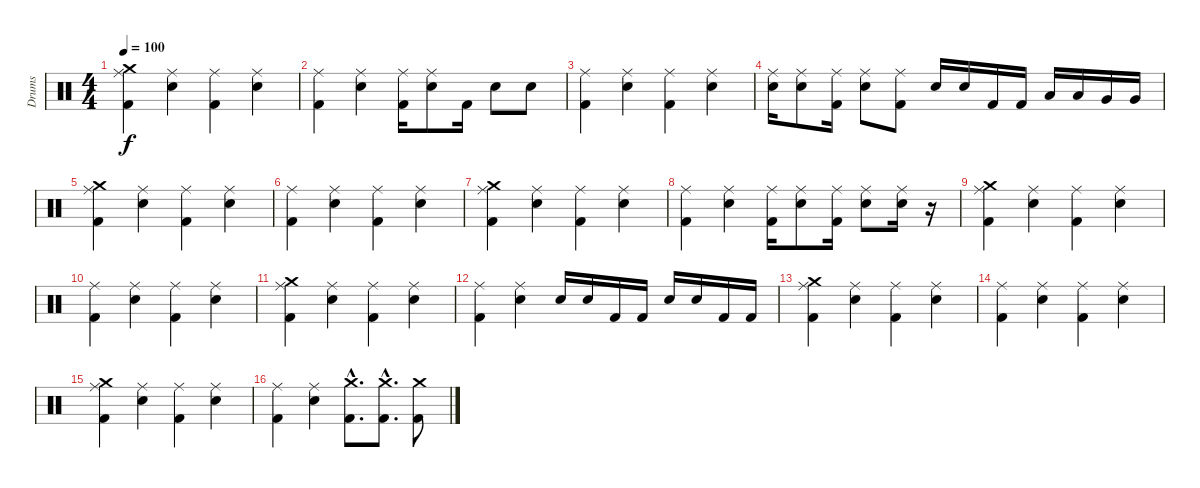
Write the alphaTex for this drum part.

\track ("Drums" "Drums") {instrument percussion}
\staff {score}
\articulation defaults
\ts (4 4)
\tempo 100
\clef neutral
\ks c
("Kick (hit) 2" "Ride (middle)" "Crash medium (hit)").4{dy f} ("Snare (hit) 2" "Ride (middle)").4 ("Kick (hit) 2" "Ride (middle)").4 ("Snare (hit) 2" "Ride (middle)").4 |
("Kick (hit) 2" "Ride (middle)").4 ("Snare (hit) 2" "Ride (middle)").4 ("Kick (hit) 2" "Ride (middle)").16 ("Snare (hit) 2" "Ride (middle)").8 "Kick (hit) 2".16 "Snare (hit) 2".8 "Snare (hit) 2".8 |
("Kick (hit) 2" "Ride (middle)").4 ("Snare (hit) 2" "Ride (middle)").4 ("Kick (hit) 2" "Ride (middle)").4 ("Snare (hit) 2" "Ride (middle)").4 |
("Snare (hit) 2" "Ride (middle)").16 ("Snare (hit) 2" "Ride (middle)").8 ("Kick (hit) 2" "Ride (middle)").16 ("Snare (hit) 2" "Ride (middle)").8 ("Kick (hit) 2" "Ride (middle)").8 "Snare (hit) 2".16 "Snare (hit) 2".16 "Kick (hit) 2".16 "Kick (hit) 2".16 "Low Tom (hit)".16 "Low Tom (hit)".16 "Very Low Tom (hit)".16 "Very Low Tom (hit)".16 |
("Kick (hit) 2" "Ride (middle)" "Crash medium (hit)").4 ("Snare (hit) 2" "Ride (middle)").4 ("Kick (hit) 2" "Ride (middle)").4 ("Snare (hit) 2" "Ride (middle)").4 |
("Kick (hit) 2" "Ride (middle)").4 ("Snare (hit) 2" "Ride (middle)").4 ("Kick (hit) 2" "Ride (middle)").4 ("Snare (hit) 2" "Ride (middle)").4 |
("Kick (hit) 2" "Ride (middle)" "Crash medium (hit)").4 ("Snare (hit) 2" "Ride (middle)").4 ("Kick (hit) 2" "Ride (middle)").4 ("Snare (hit) 2" "Ride (middle)").4 |
("Kick (hit) 2" "Ride (middle)").4 ("Snare (hit) 2" "Ride (middle)").4 ("Kick (hit) 2" "Ride (middle)").16 ("Snare (hit) 2" "Ride (middle)").8 ("Kick (hit) 2" "Ride (middle)").16 ("Snare (hit) 2" "Ride (middle)").8 ("Snare (hit) 2" "Ride (middle)").16 r.16 |
("Kick (hit) 2" "Ride (middle)" "Crash medium (hit)").4 ("Snare (hit) 2" "Ride (middle)").4 ("Kick (hit) 2" "Ride (middle)").4 ("Snare (hit) 2" "Ride (middle)").4 |
("Kick (hit) 2" "Ride (middle)").4 ("Snare (hit) 2" "Ride (middle)").4 ("Kick (hit) 2" "Ride (middle)").4 ("Snare (hit) 2" "Ride (middle)").4 |
("Kick (hit) 2" "Ride (middle)" "Crash medium (hit)").4 ("Snare (hit) 2" "Ride (middle)").4 ("Kick (hit) 2" "Ride (middle)").4 ("Snare (hit) 2" "Ride (middle)").4 |
("Kick (hit) 2" "Ride (middle)").4 ("Snare (hit) 2" "Ride (middle)").4 "Snare (hit) 2".16 "Snare (hit) 2".16 "Kick (hit) 2".16 "Kick (hit) 2".16 "Snare (hit) 2".16 "Snare (hit) 2".16 "Kick (hit) 2".16 "Kick (hit) 2".16 |
("Kick (hit) 2" "Ride (middle)" "Crash medium (hit)").4 ("Snare (hit) 2" "Ride (middle)").4 ("Kick (hit) 2" "Ride (middle)").4 ("Snare (hit) 2" "Ride (middle)").4 |
("Kick (hit) 2" "Ride (middle)").4 ("Snare (hit) 2" "Ride (middle)").4 ("Kick (hit) 2" "Ride (middle)").4 ("Snare (hit) 2" "Ride (middle)").4 |
("Kick (hit) 2" "Ride (middle)" "Crash medium (hit)").4 ("Snare (hit) 2" "Ride (middle)").4 ("Kick (hit) 2" "Ride (middle)").4 ("Snare (hit) 2" "Ride (middle)").4 |
("Kick (hit) 2" "Ride (middle)").4 ("Snare (hit) 2" "Ride (middle)").4 ("Kick (hit) 2"{hac} "Crash medium (hit)"{hac}).8{d} ("Kick (hit) 2"{hac} "Crash medium (hit)"{hac}).8{d} ("Kick (hit) 2" "Crash medium (hit)").8
